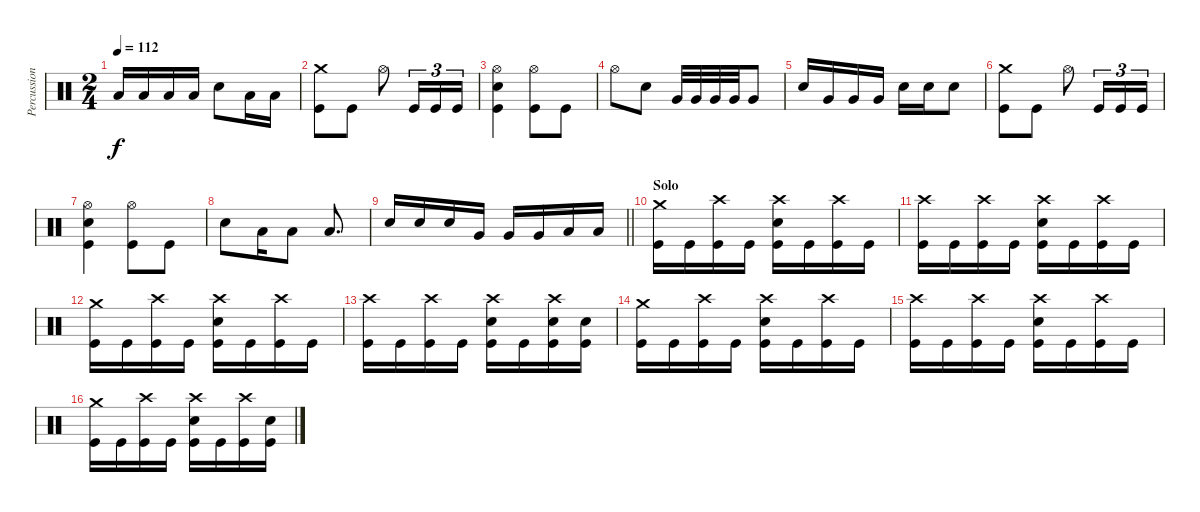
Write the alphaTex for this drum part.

\track ("Percussion" "Percussion") {instrument percussion}
\staff {score}
\articulation defaults
\ts (2 4)
\tempo 112
\clef neutral
\ks c "Low Floor Tom (hit)".16{dy f} "Low Floor Tom (hit)".16 "Low Floor Tom (hit)".16 "Low Floor Tom (hit)".16 "Electric Snare (hit)".8 "Low Floor Tom (hit)".16 "Low Floor Tom (hit)".16
|
("Crash medium (hit)" "Kick (hit)").8 "Kick (hit)".8 "Hi-Hat (open)".8 "Kick (hit)".16{tu (3 2)} "Kick (hit)".16{tu (3 2)} "Kick (hit)".16{tu (3 2)} |
("Hi-Hat (open)" "Electric Snare (hit)" "Kick (hit)").4 ("Hi-Hat (open)" "Kick (hit)").8 "Kick (hit)".8 |
"Hi-Hat (open)".8 "Electric Snare (hit)".8 "Very Low Tom (hit)".32 "Very Low Tom (hit)".32 "Very Low Tom (hit)".32 "Very Low Tom (hit)".32 "Very Low Tom (hit)".8 |
"Electric Snare (hit)".16 "Very Low Tom (hit)".16 "Very Low Tom (hit)".16 "Very Low Tom (hit)".16 "Electric Snare (hit)".16 "Electric Snare (hit)".16 "Electric Snare (hit)".8 |
("Crash medium (hit)" "Kick (hit)").8 "Kick (hit)".8 "Hi-Hat (open)".8 "Kick (hit)".16{tu (3 2)} "Kick (hit)".16{tu (3 2)} "Kick (hit)".16{tu (3 2)} |
("Hi-Hat (open)" "Electric Snare (hit)" "Kick (hit)").4 ("Hi-Hat (open)" "Kick (hit)").8 "Kick (hit)".8 |
"Electric Snare (hit)".8 "Low Floor Tom (hit)".16 "Low Floor Tom (hit)".8 "Low Floor Tom (hit)".8{d} |
\barLineRight lightlight "Electric Snare (hit)".16 "Electric Snare (hit)".16 "Electric Snare (hit)".16 "Very Low Tom (hit)".16 "Very Low Tom (hit)".16 "Very Low Tom (hit)".16 "Low Floor Tom (hit)".16 "Low Floor Tom (hit)".16
|
\section ("" "Solo")
("Crash medium (hit)" "Kick (hit)").16 "Kick (hit)".16 ("Crash high (hit)" "Kick (hit)").16 "Kick (hit)".16 ("Crash high (hit)" "Electric Snare (hit)" "Kick (hit)").16 "Kick (hit)".16 ("Crash high (hit)" "Kick (hit)").16 "Kick (hit)".16 |
("Crash high (hit)" "Kick (hit)").16 "Kick (hit)".16 ("Crash high (hit)" "Kick (hit)").16 "Kick (hit)".16 ("Crash high (hit)" "Electric Snare (hit)" "Kick (hit)").16 "Kick (hit)".16 ("Crash high (hit)" "Kick (hit)").16 "Kick (hit)".16 |
("Crash medium (hit)" "Kick (hit)").16 "Kick (hit)".16 ("Crash high (hit)" "Kick (hit)").16 "Kick (hit)".16 ("Crash high (hit)" "Electric Snare (hit)" "Kick (hit)").16 "Kick (hit)".16 ("Crash high (hit)" "Kick (hit)").16 "Kick (hit)".16 |
("Crash high (hit)" "Kick (hit)").16 "Kick (hit)".16 ("Crash high (hit)" "Kick (hit)").16 "Kick (hit)".16 ("Crash high (hit)" "Electric Snare (hit)" "Kick (hit)").16 "Kick (hit)".16 ("Crash high (hit)" "Electric Snare (hit)" "Kick (hit)").16 ("Electric Snare (hit)" "Kick (hit)").16 |
("Crash medium (hit)" "Kick (hit)").16 "Kick (hit)".16 ("Crash high (hit)" "Kick (hit)").16 "Kick (hit)".16 ("Crash high (hit)" "Electric Snare (hit)" "Kick (hit)").16 "Kick (hit)".16 ("Crash high (hit)" "Kick (hit)").16 "Kick (hit)".16 |
("Crash high (hit)" "Kick (hit)").16 "Kick (hit)".16 ("Crash high (hit)" "Kick (hit)").16 "Kick (hit)".16 ("Crash high (hit)" "Electric Snare (hit)" "Kick (hit)").16 "Kick (hit)".16 ("Crash high (hit)" "Kick (hit)").16 "Kick (hit)".16 |
("Crash medium (hit)" "Kick (hit)").16 "Kick (hit)".16 ("Crash high (hit)" "Kick (hit)").16 "Kick (hit)".16 ("Crash high (hit)" "Electric Snare (hit)" "Kick (hit)").16 "Kick (hit)".16 ("Crash high (hit)" "Kick (hit)").16 ("Electric Snare (hit)" "Kick (hit)").16
